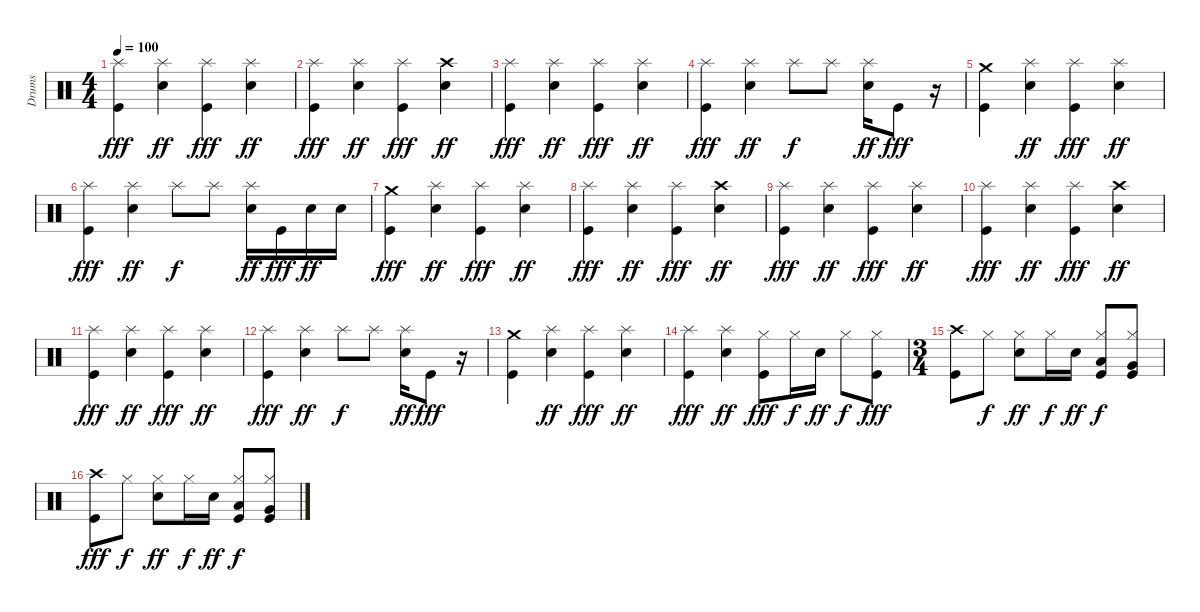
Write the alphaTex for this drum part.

\track ("Drums" "Drums") {instrument percussion}
\staff {score}
\articulation defaults
\ts (4 4)
\tempo 100
\clef neutral
\ks c
("Kick (hit)" "Splash (hit)").4{dy fff} ("Snare (hit) 2" "Splash (hit)").4{dy ff} ("Kick (hit)" "Splash (hit)").4{dy fff} ("Snare (hit) 2" "Splash (hit)").4{dy ff} |
("Kick (hit)" "Splash (hit)").4{dy fff} ("Snare (hit) 2" "Splash (hit)").4{dy ff} ("Kick (hit)" "Splash (hit)").4{dy fff} ("Snare (hit) 2" "Crash high (hit)").4{dy ff} |
("Kick (hit)" "Splash (hit)").4{dy fff} ("Snare (hit) 2" "Splash (hit)").4{dy ff} ("Kick (hit)" "Splash (hit)").4{dy fff} ("Snare (hit) 2" "Splash (hit)").4{dy ff} |
("Kick (hit)" "Splash (hit)").4{dy fff} ("Snare (hit) 2" "Splash (hit)").4{dy ff} "Splash (hit)".8{dy f} "Splash (hit)".8 ("Snare (hit) 2" "Splash (hit)").16{dy ff} "Kick (hit)".8{dy fff} r.16 |
("Kick (hit)" "Crash medium (hit)").4 ("Snare (hit) 2" "Splash (hit)").4{dy ff} ("Kick (hit)" "Splash (hit)").4{dy fff} ("Snare (hit) 2" "Splash (hit)").4{dy ff} |
("Kick (hit)" "Splash (hit)").4{dy fff} ("Snare (hit) 2" "Splash (hit)").4{dy ff} "Splash (hit)".8{dy f} "Splash (hit)".8 ("Snare (hit) 2" "Splash (hit)").16{dy ff} "Kick (hit)".16{dy fff} "Snare (hit) 2".16{dy ff} "Snare (hit) 2".16 |
("Kick (hit)" "Crash medium (hit)").4{dy fff} ("Snare (hit) 2" "Splash (hit)").4{dy ff} ("Kick (hit)" "Splash (hit)").4{dy fff} ("Snare (hit) 2" "Splash (hit)").4{dy ff} |
("Kick (hit)" "Splash (hit)").4{dy fff} ("Snare (hit) 2" "Splash (hit)").4{dy ff} ("Kick (hit)" "Splash (hit)").4{dy fff} ("Snare (hit) 2" "Crash high (hit)").4{dy ff} |
("Kick (hit)" "Splash (hit)").4{dy fff} ("Snare (hit) 2" "Splash (hit)").4{dy ff} ("Kick (hit)" "Splash (hit)").4{dy fff} ("Snare (hit) 2" "Splash (hit)").4{dy ff} |
("Kick (hit)" "Splash (hit)").4{dy fff} ("Snare (hit) 2" "Splash (hit)").4{dy ff} ("Kick (hit)" "Splash (hit)").4{dy fff} ("Snare (hit) 2" "Crash high (hit)").4{dy ff} |
("Kick (hit)" "Splash (hit)").4{dy fff} ("Snare (hit) 2" "Splash (hit)").4{dy ff} ("Kick (hit)" "Splash (hit)").4{dy fff} ("Snare (hit) 2" "Splash (hit)").4{dy ff} |
("Kick (hit)" "Splash (hit)").4{dy fff} ("Snare (hit) 2" "Splash (hit)").4{dy ff} "Splash (hit)".8{dy f} "Splash (hit)".8 ("Snare (hit) 2" "Splash (hit)").16{dy ff} "Kick (hit)".8{dy fff} r.16 |
("Kick (hit)" "Crash medium (hit)").4 ("Snare (hit) 2" "Splash (hit)").4{dy ff} ("Kick (hit)" "Splash (hit)").4{dy fff} ("Snare (hit) 2" "Splash (hit)").4{dy ff} |
("Kick (hit)" "Splash (hit)").4{dy fff} ("Snare (hit) 2" "Splash (hit)").4{dy ff} ("Kick (hit)" "Hi-Hat (closed)").8{dy fff} "Hi-Hat (closed)".16{dy f} "Snare (hit) 2".16{dy ff} "Hi-Hat (closed)".8{dy f} ("Kick (hit)" "Hi-Hat (closed)").8{dy fff} |
\ts (3 4)
("Kick (hit)" "Crash high (hit)").8 "Hi-Hat (closed)".8{dy f} ("Snare (hit) 2" "Hi-Hat (closed)").8{dy ff} "Hi-Hat (closed)".16{dy f} "Snare (hit) 2".16{dy ff} ("Kick (hit)" "Low Tom (hit)" "Hi-Hat (closed)").8{dy f} ("Kick (hit)" "Very Low Tom (hit)" "Hi-Hat (closed)").8 |
("Kick (hit)" "Crash high (hit)").8{dy fff} "Hi-Hat (closed)".8{dy f} ("Snare (hit) 2" "Hi-Hat (closed)").8{dy ff} "Hi-Hat (closed)".16{dy f} "Snare (hit) 2".16{dy ff} ("Kick (hit)" "Low Tom (hit)" "Hi-Hat (closed)").8{dy f} ("Kick (hit)" "Very Low Tom (hit)" "Hi-Hat (closed)").8
